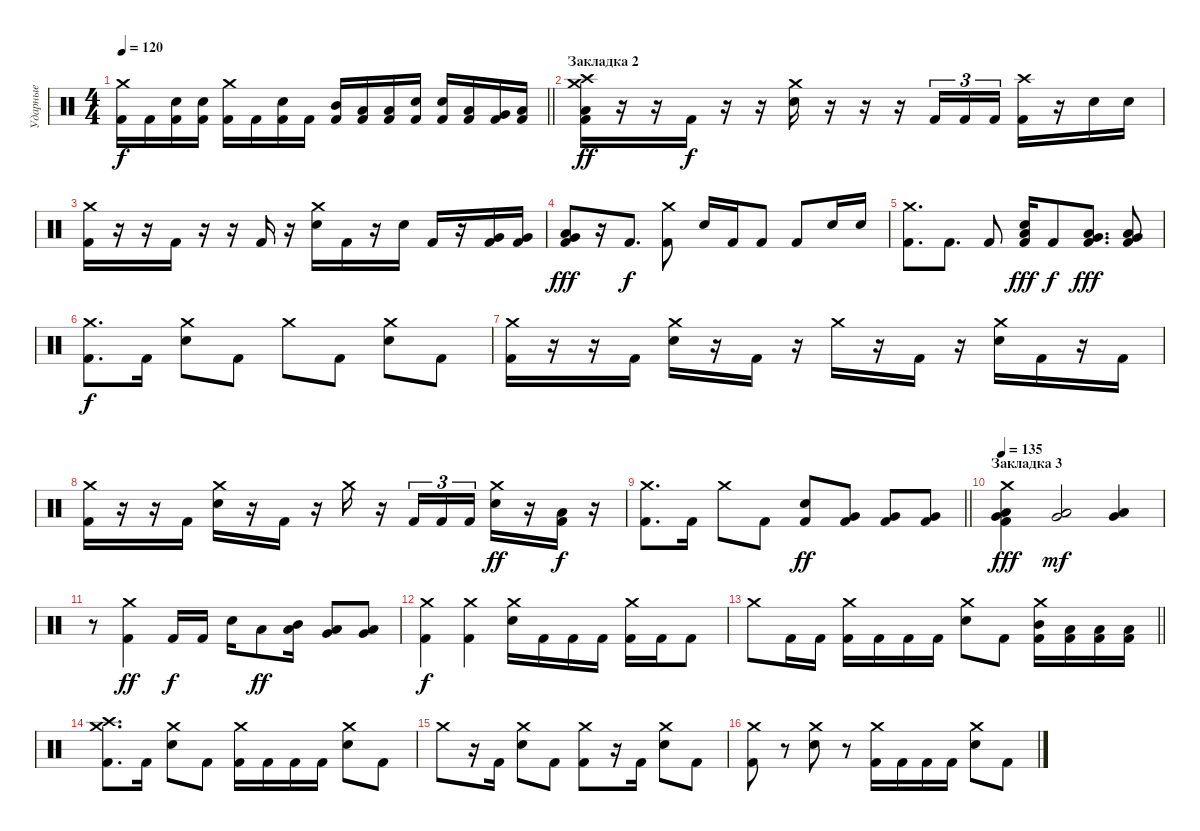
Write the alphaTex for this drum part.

\track ("Ударные" "Ударные") {instrument percussion}
\staff {score}
\articulation defaults
\ts (4 4)
\tempo 120
\clef neutral
\barLineRight lightlight
\ks c
("Crash medium (hit)" "Kick (hit) 2").16{dy f} "Kick (hit) 2".16 ("Electric Snare (hit)" "Kick (hit) 2").16 ("Electric Snare (hit)" "Kick (hit) 2").16 ("Crash medium (hit)" "Kick (hit) 2").16 "Kick (hit) 2".16 ("Electric Snare (hit)" "Kick (hit) 2").16 "Kick (hit) 2".16 ("Mid Tom (hit)" "Kick (hit) 2").16 ("Low Tom (hit)" "Kick (hit) 2").16 ("Low Tom (hit)" "Kick (hit) 2").16 ("Electric Snare (hit)" "Kick (hit) 2").16 ("Electric Snare (hit)" "Kick (hit) 2").16 ("Low Tom (hit)" "Kick (hit) 2").16 ("Very Low Tom (hit)" "Kick (hit) 2").16 ("Low Floor Tom (hit)" "Kick (hit) 2").16 |
\section ("" "Закладка 2")
("Crash medium (hit)" "Crash high (hit)" "Low Floor Tom (hit)" "Kick (hit) 2").16{dy ff} r.16 r.16 "Kick (hit) 2".16{dy f} r.16 r.16 ("Crash medium (hit)" "Electric Snare (hit)").16 r.16 r.16 r.16 "Kick (hit) 2".16{tu (3 2)} "Kick (hit) 2".16{tu (3 2)} "Kick (hit) 2".16{tu (3 2)} ("Crash high (hit)" "Kick (hit) 2").16 r.16 "Electric Snare (hit)".16 "Electric Snare (hit)".16 |
("Crash medium (hit)" "Kick (hit) 2").16 r.16 r.16 "Kick (hit) 2".16 r.16 r.16 "Kick (hit) 2".16 r.16 ("Crash medium (hit)" "Electric Snare (hit)").16 "Kick (hit) 2".16 r.16 "Electric Snare (hit)".16 "Kick (hit) 2".16 r.16 ("Very Low Tom (hit)" "Kick (hit) 2").16 ("Very Low Tom (hit)" "Kick (hit) 2").16 |
("Very Low Tom (hit)" "Low Floor Tom (hit)" "Kick (hit) 2").8{dy fff} r.16 "Kick (hit) 2".8{d dy f} ("Crash medium (hit)" "Kick (hit) 2").8 "Electric Snare (hit)".16 "Kick (hit) 2".16 "Kick (hit) 2".8 "Kick (hit) 2".8 "Electric Snare (hit)".16 "Electric Snare (hit)".16 |
("Crash medium (hit)" "Kick (hit) 2").8{d} "Kick (hit) 2".8{d} "Kick (hit) 2".8 ("Electric Snare (hit)" "Low Floor Tom (hit)" "Kick (hit) 2").16{dy fff} "Kick (hit) 2".8{dy f} ("Very Low Tom (hit)" "Low Floor Tom (hit)" "Kick (hit) 2").8{d dy fff} ("Very Low Tom (hit)" "Low Floor Tom (hit)" "Kick (hit) 2").8 |
("Crash medium (hit)" "Kick (hit) 2").8{d dy f} "Kick (hit) 2".16 ("Crash medium (hit)" "Electric Snare (hit)").8 "Kick (hit) 2".8 "Crash medium (hit)".8 "Kick (hit) 2".8 ("Crash medium (hit)" "Electric Snare (hit)").8 "Kick (hit) 2".8 |
("Crash medium (hit)" "Kick (hit) 2").16 r.16 r.16 "Kick (hit) 2".16 ("Crash medium (hit)" "Electric Snare (hit)").16 r.16 "Kick (hit) 2".16 r.16 "Crash medium (hit)".16 r.16 "Kick (hit) 2".16 r.16 ("Crash medium (hit)" "Electric Snare (hit)").16 "Kick (hit) 2".16 r.16 "Kick (hit) 2".16 |
("Crash medium (hit)" "Kick (hit) 2").16 r.16 r.16 "Kick (hit) 2".16 ("Crash medium (hit)" "Electric Snare (hit)").16 r.16 "Kick (hit) 2".16 r.16 "Crash medium (hit)".16 r.16 "Kick (hit) 2".16{tu (3 2)} "Kick (hit) 2".16{tu (3 2)} "Kick (hit) 2".16{tu (3 2)} ("Crash medium (hit)" "Electric Snare (hit)").16{dy ff} r.16 ("Low Floor Tom (hit)" "Kick (hit) 2").16{dy f} r.16 |
\barLineRight lightlight
("Crash medium (hit)" "Kick (hit) 2").8{d} "Kick (hit) 2".16 "Crash medium (hit)".8 "Kick (hit) 2".8 ("Electric Snare (hit)" "Kick (hit) 2").8{dy ff} ("Very Low Tom (hit)" "Kick (hit) 2").8 ("Very Low Tom (hit)" "Kick (hit) 2").8 ("Very Low Tom (hit)" "Kick (hit) 2").8 |
\section ("" "Закладка 3")
\tempo 135
("Crash medium (hit)" "Very Low Tom (hit)" "Low Floor Tom (hit)" "Kick (hit) 2").4{dy fff} ("Very Low Tom (hit)" "Low Floor Tom (hit)").2{dy mf} ("Very Low Tom (hit)" "Low Floor Tom (hit)").4 |
r.8 ("Crash medium (hit)" "Kick (hit) 2").4{dy ff} "Kick (hit) 2".16{dy f} "Kick (hit) 2".16 "Electric Snare (hit)".16 "Low Floor Tom (hit)".8{dy ff} ("Mid Tom (hit)" "Low Tom (hit)").16 ("Low Tom (hit)" "Very Low Tom (hit)").8 ("Low Tom (hit)" "Very Low Tom (hit)").8 |
("Crash medium (hit)" "Kick (hit) 2").4{dy f} ("Crash medium (hit)" "Kick (hit) 2").4 ("Crash medium (hit)" "Electric Snare (hit)").16 "Kick (hit) 2".16 "Kick (hit) 2".16 "Kick (hit) 2".16 ("Crash medium (hit)" "Kick (hit) 2").16 "Kick (hit) 2".16 "Kick (hit) 2".8 |
\barLineRight lightlight "Crash medium (hit)".8 "Kick (hit) 2".16 "Kick (hit) 2".16
("Crash medium (hit)" "Kick (hit) 2").16 "Kick (hit) 2".16 "Kick (hit) 2".16 "Kick (hit) 2".16 ("Crash medium (hit)" "Electric Snare (hit)").8 "Kick (hit) 2".8 ("Crash medium (hit)" "Mid Tom (hit)" "Kick (hit) 2").16 ("Low Floor Tom (hit)" "Kick (hit) 2").16 ("Low Tom (hit)" "Kick (hit) 2").16 ("Low Floor Tom (hit)" "Kick (hit) 2").16 |
("Crash medium (hit)" "Crash high (hit)" "Kick (hit) 2").8{d} "Kick (hit) 2".16 ("Crash medium (hit)" "Electric Snare (hit)").8 "Kick (hit) 2".8 ("Crash medium (hit)" "Kick (hit) 2").16 "Kick (hit) 2".16 "Kick (hit) 2".16 "Kick (hit) 2".16 ("Crash medium (hit)" "Electric Snare (hit)").8 "Kick (hit) 2".8 |
"Crash medium (hit)".8 r.16 "Kick (hit) 2".16 ("Crash medium (hit)" "Electric Snare (hit)").8 "Kick (hit) 2".8 ("Crash medium (hit)" "Kick (hit) 2").8 r.16 "Kick (hit) 2".16 ("Crash medium (hit)" "Electric Snare (hit)").8 "Kick (hit) 2".8 |
("Crash medium (hit)" "Kick (hit) 2").8 r.8 ("Crash medium (hit)" "Electric Snare (hit)").8 r.8 ("Crash medium (hit)" "Kick (hit) 2").16 "Kick (hit) 2".16 "Kick (hit) 2".16 "Kick (hit) 2".16 ("Crash medium (hit)" "Electric Snare (hit)").8 "Kick (hit) 2".8
